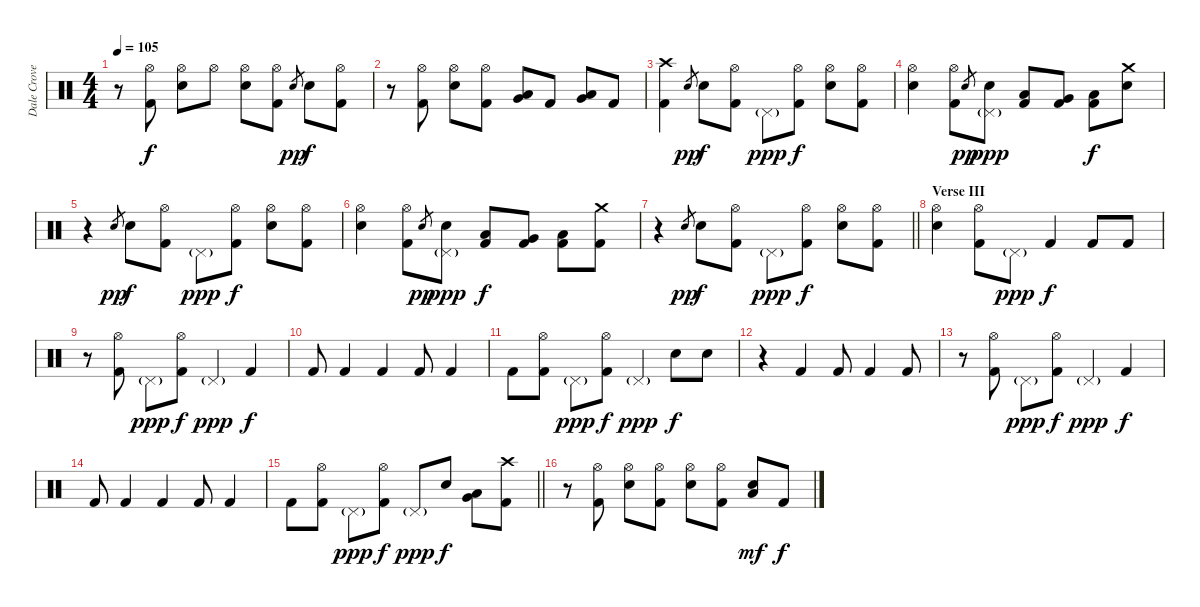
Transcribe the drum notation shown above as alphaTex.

\track ("Dale Crover" "Dale Crove") {instrument percussion}
\staff {score}
\articulation defaults
\ts (4 4)
\tempo 105
\clef neutral
\ks c
r.8{dy f} ("Hi-Hat (open)" "Kick (hit) 2").8 ("Hi-Hat (open)" "Electric Snare (hit)").8 "Hi-Hat (open)".8 ("Hi-Hat (open)" "Electric Snare (hit)").8 ("Hi-Hat (open)" "Kick (hit) 2").8 "Electric Snare (hit)".8{gr dy pp} "Electric Snare (hit)".8{dy f} ("Hi-Hat (open)" "Kick (hit) 2").8 |
r.8 ("Hi-Hat (open)" "Kick (hit) 2").8 ("Hi-Hat (open)" "Electric Snare (hit)").8 ("Hi-Hat (open)" "Kick (hit) 2").8 ("Low Tom (hit)" "Very Low Tom (hit)").8 "Kick (hit) 2".8 ("Very Low Tom (hit)" "Low Floor Tom (hit)").8 "Kick (hit) 2".8 |
("Crash high (hit)" "Kick (hit) 2").4 "Electric Snare (hit)".8{gr dy pp} "Electric Snare (hit)".8{dy f} ("Hi-Hat (open)" "Kick (hit) 2").8 "Pedal Hi-Hat (hit)"{g}.8{dy ppp} ("Hi-Hat (open)" "Kick (hit) 2").8{dy f} ("Hi-Hat (open)" "Electric Snare (hit)").8 ("Hi-Hat (open)" "Kick (hit) 2").8 |
("Hi-Hat (open)" "Electric Snare (hit)").4 ("Hi-Hat (open)" "Kick (hit) 2").8 "Electric Snare (hit)".8{gr dy pp} ("Pedal Hi-Hat (hit)"{g} "Electric Snare (hit)").8{dy ppp} ("Low Tom (hit)" "Kick (hit) 2").8 ("Very Low Tom (hit)" "Kick (hit) 2").8 ("Low Floor Tom (hit)" "Kick (hit) 2").8{dy f} ("Crash medium (hit)" "Electric Snare (hit)").8 |
r.4 "Electric Snare (hit)".8{gr dy pp} "Electric Snare (hit)".8{dy f} ("Hi-Hat (open)" "Kick (hit) 2").8 "Pedal Hi-Hat (hit)"{g}.8{dy ppp} ("Hi-Hat (open)" "Kick (hit) 2").8{dy f} ("Hi-Hat (open)" "Electric Snare (hit)").8 ("Hi-Hat (open)" "Kick (hit) 2").8 |
("Hi-Hat (open)" "Electric Snare (hit)").4 ("Hi-Hat (open)" "Kick (hit) 2").8 "Electric Snare (hit)".8{gr dy pp} ("Pedal Hi-Hat (hit)"{g} "Electric Snare (hit)").8{dy ppp} ("Low Tom (hit)" "Kick (hit) 2").8{dy f} ("Very Low Tom (hit)" "Kick (hit) 2").8 ("Low Floor Tom (hit)" "Kick (hit) 2").8 ("Crash medium (hit)" "Kick (hit) 2").8 |
\barLineRight lightlight
r.4 "Electric Snare (hit)".8{gr dy pp} "Electric Snare (hit)".8{dy f} ("Hi-Hat (open)" "Kick (hit) 2").8 "Pedal Hi-Hat (hit)"{g}.8{dy ppp} ("Hi-Hat (open)" "Kick (hit) 2").8{dy f} ("Hi-Hat (open)" "Electric Snare (hit)").8 ("Hi-Hat (open)" "Kick (hit) 2").8 |
\section ("" "Verse III")
("Hi-Hat (open)" "Electric Snare (hit)").4 ("Hi-Hat (open)" "Kick (hit) 2").8 "Pedal Hi-Hat (hit)"{g}.8{dy ppp} "Kick (hit) 2".4{dy f} "Kick (hit) 2".8 "Kick (hit) 2".8 |
r.8 ("Hi-Hat (open)" "Kick (hit) 2").8 "Pedal Hi-Hat (hit)"{g}.8{dy ppp} ("Hi-Hat (open)" "Kick (hit) 2").8{dy f} "Pedal Hi-Hat (hit)"{g}.4{dy ppp} "Kick (hit) 2".4{dy f} |
"Kick (hit) 2".8 "Kick (hit) 2".4 "Kick (hit) 2".4 "Kick (hit) 2".8 "Kick (hit) 2".4 |
"Kick (hit) 2".8 ("Hi-Hat (open)" "Kick (hit) 2").8 "Pedal Hi-Hat (hit)"{g}.8{dy ppp} ("Hi-Hat (open)" "Kick (hit) 2").8{dy f} "Pedal Hi-Hat (hit)"{g}.4{dy ppp} "Electric Snare (hit)".8{dy f} "Electric Snare (hit)".8 |
r.4 "Kick (hit) 2".4 "Kick (hit) 2".8 "Kick (hit) 2".4 "Kick (hit) 2".8 |
r.8 ("Hi-Hat (open)" "Kick (hit) 2").8 "Pedal Hi-Hat (hit)"{g}.8{dy ppp} ("Hi-Hat (open)" "Kick (hit) 2").8{dy f} "Pedal Hi-Hat (hit)"{g}.4{dy ppp} "Kick (hit) 2".4{dy f} |
"Kick (hit) 2".8 "Kick (hit) 2".4 "Kick (hit) 2".4 "Kick (hit) 2".8 "Kick (hit) 2".4 |
\barLineRight lightlight "Kick (hit) 2".8
("Hi-Hat (open)" "Kick (hit) 2").8 "Pedal Hi-Hat (hit)"{g}.8{dy ppp} ("Hi-Hat (open)" "Kick (hit) 2").8{dy f} "Pedal Hi-Hat (hit)"{g}.8{dy ppp} "Electric Snare (hit)".8{dy f} ("Low Tom (hit)" "Very Low Tom (hit)").8 ("Crash high (hit)" "Kick (hit) 2").8 |
r.8 ("Hi-Hat (open)" "Kick (hit) 2").8 ("Hi-Hat (open)" "Electric Snare (hit)").8 ("Hi-Hat (open)" "Kick (hit) 2").8 ("Hi-Hat (open)" "Electric Snare (hit)").8 ("Hi-Hat (open)" "Kick (hit) 2").8 ("Low Tom (hit)" "Electric Snare (hit)").8{dy mf} "Kick (hit) 2".8{dy f}
